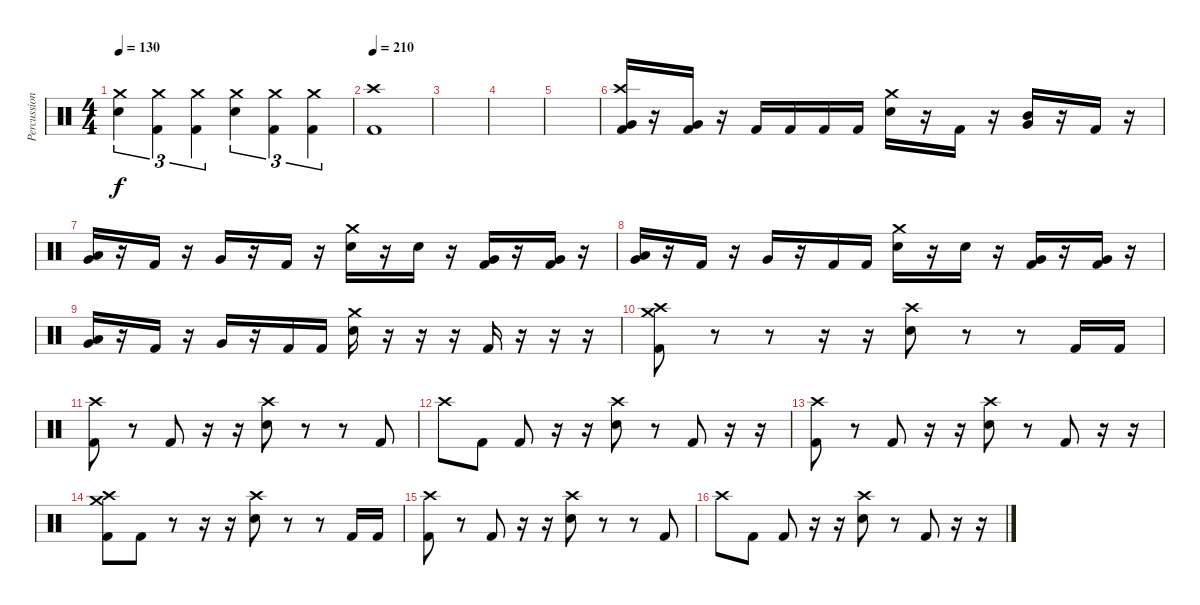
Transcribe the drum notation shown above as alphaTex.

\track ("Percussion" "Percussion") {instrument percussion}
\staff {score}
\articulation defaults
\ts (4 4)
\tempo 130
\clef neutral
\ks c
("Crash medium (hit)" "Snare (hit) 2").4{tu (3 2) dy f} ("Crash medium (hit)" "Kick (hit) 2").4{tu (3 2)} ("Crash medium (hit)" "Kick (hit) 2").4{tu (3 2)} ("Crash medium (hit)" "Snare (hit) 2").4{tu (3 2)} ("Crash medium (hit)" "Kick (hit) 2").4{tu (3 2)} ("Crash medium (hit)" "Kick (hit) 2").4{tu (3 2)} |
\tempo 210
("Crash high (hit)" "Kick (hit) 2").1 |
|
|
|
("Crash high (hit)" "Very Low Tom (hit)" "Kick (hit) 2").16 r.16 ("Very Low Tom (hit)" "Kick (hit) 2").16 r.16 "Kick (hit) 2".16 "Kick (hit) 2".16 "Kick (hit) 2".16 "Kick (hit) 2".16 ("Crash medium (hit)" "Snare (hit) 2").16 r.16 "Kick (hit) 2".16 r.16 ("Mid Tom (hit)" "Very Low Tom (hit)").16 r.16 "Kick (hit) 2".16 r.16 |
("Low Tom (hit)" "Very Low Tom (hit)").16 r.16 "Kick (hit) 2".16 r.16 "Very Low Tom (hit)".16 r.16 "Kick (hit) 2".16 r.16 ("Crash medium (hit)" "Snare (hit) 2").16 r.16 "Snare (hit) 2".16 r.16 ("Very Low Tom (hit)" "Kick (hit) 2").16 r.16 ("Very Low Tom (hit)" "Kick (hit) 2").16 r.16 |
("Low Tom (hit)" "Very Low Tom (hit)").16 r.16 "Kick (hit) 2".16 r.16 "Very Low Tom (hit)".16 r.16 "Kick (hit) 2".16 "Kick (hit) 2".16 ("Crash medium (hit)" "Snare (hit) 2").16 r.16 "Snare (hit) 2".16 r.16 ("Very Low Tom (hit)" "Kick (hit) 2").16 r.16 ("Very Low Tom (hit)" "Kick (hit) 2").16 r.16 |
("Low Tom (hit)" "Very Low Tom (hit)").16 r.16 "Kick (hit) 2".16 r.16 "Very Low Tom (hit)".16 r.16 "Kick (hit) 2".16 "Kick (hit) 2".16 ("Crash medium (hit)" "Snare (hit) 2").16 r.16 r.16 r.16 "Kick (hit) 2".16 r.16 r.16 r.16 |
("Crash high (hit)" "Crash medium (hit)" "Kick (hit) 2").8 r.8 r.8 r.16 r.16 ("Crash high (hit)" "Snare (hit) 2").8 r.8 r.8 "Kick (hit) 2".16 "Kick (hit) 2".16 |
("Crash high (hit)" "Kick (hit) 2").8 r.8 "Kick (hit) 2".8 r.16 r.16 ("Crash high (hit)" "Snare (hit) 2").8 r.8 r.8 "Kick (hit) 2".8 |
"Crash high (hit)".8 "Kick (hit) 2".8 "Kick (hit) 2".8 r.16 r.16 ("Crash high (hit)" "Snare (hit) 2").8 r.8 "Kick (hit) 2".8 r.16 r.16 |
("Crash high (hit)" "Kick (hit) 2").8 r.8 "Kick (hit) 2".8 r.16 r.16 ("Crash high (hit)" "Snare (hit) 2").8 r.8 "Kick (hit) 2".8 r.16 r.16 |
("Crash high (hit)" "Crash medium (hit)" "Kick (hit) 2").8 "Kick (hit) 2".8 r.8 r.16 r.16 ("Crash high (hit)" "Snare (hit) 2").8 r.8 r.8 "Kick (hit) 2".16 "Kick (hit) 2".16 |
("Crash high (hit)" "Kick (hit) 2").8 r.8 "Kick (hit) 2".8 r.16 r.16 ("Crash high (hit)" "Snare (hit) 2").8 r.8 r.8 "Kick (hit) 2".8 |
"Crash high (hit)".8 "Kick (hit) 2".8 "Kick (hit) 2".8 r.16 r.16 ("Crash high (hit)" "Snare (hit) 2").8 r.8 "Kick (hit) 2".8 r.16 r.16
